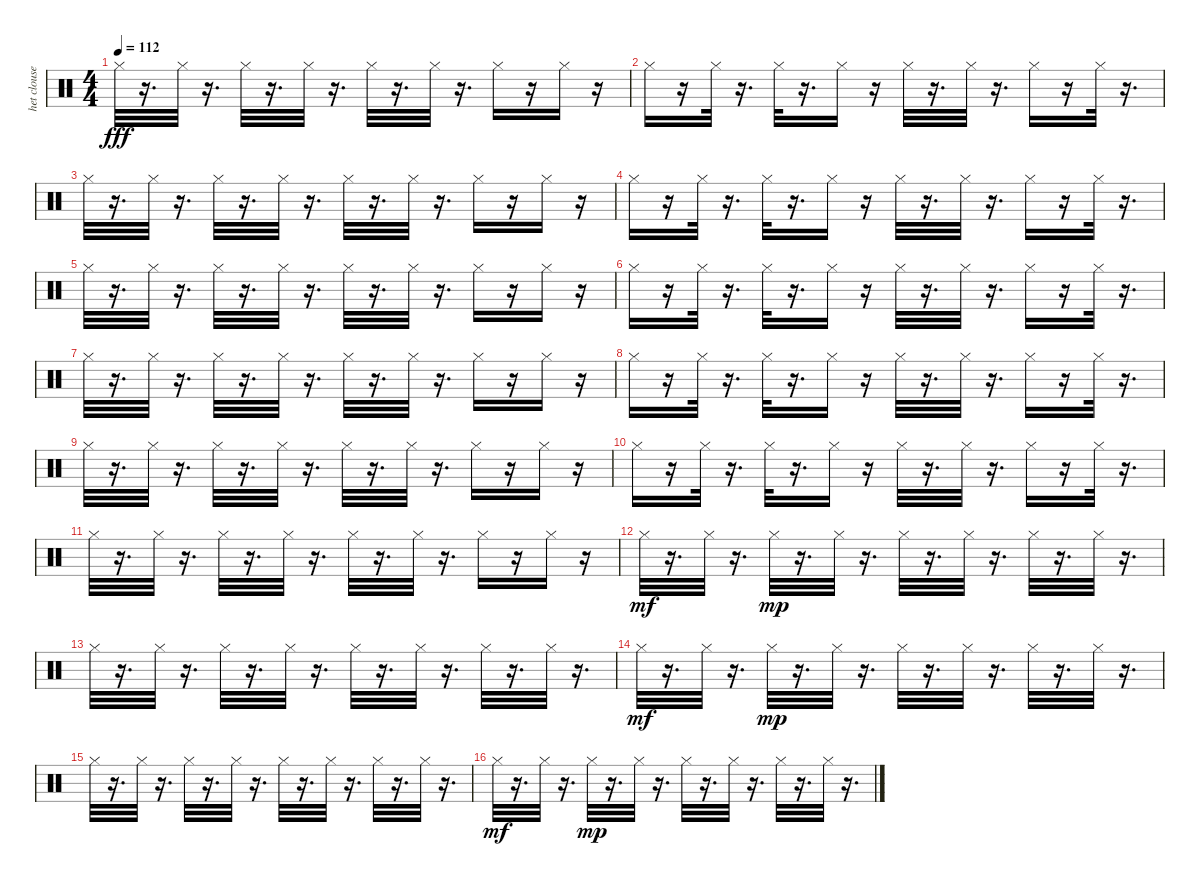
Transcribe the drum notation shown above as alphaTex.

\track ("het cloused" "het clouse") {instrument percussion}
\staff {score}
\articulation defaults
\ts (4 4)
\tempo 112
\clef neutral
\ks c "Hi-Hat (closed)".32{dy fff}
r.16{d} "Hi-Hat (closed)".32 r.16{d} "Hi-Hat (closed)".32 r.16{d} "Hi-Hat (closed)".32 r.16{d} "Hi-Hat (closed)".32 r.16{d} "Hi-Hat (closed)".32 r.16{d} "Hi-Hat (closed)".16 r.16 "Hi-Hat (closed)".16 r.16 |
"Hi-Hat (closed)".16 r.16 "Hi-Hat (closed)".32 r.16{d} "Hi-Hat (closed)".32 r.16{d} "Hi-Hat (closed)".16 r.16 "Hi-Hat (closed)".32 r.16{d} "Hi-Hat (closed)".32 r.16{d} "Hi-Hat (closed)".16 r.16 "Hi-Hat (closed)".32 r.16{d} |
"Hi-Hat (closed)".32 r.16{d} "Hi-Hat (closed)".32 r.16{d} "Hi-Hat (closed)".32 r.16{d} "Hi-Hat (closed)".32 r.16{d} "Hi-Hat (closed)".32 r.16{d} "Hi-Hat (closed)".32 r.16{d} "Hi-Hat (closed)".16 r.16 "Hi-Hat (closed)".16 r.16 |
"Hi-Hat (closed)".16 r.16 "Hi-Hat (closed)".32 r.16{d} "Hi-Hat (closed)".32 r.16{d} "Hi-Hat (closed)".16 r.16 "Hi-Hat (closed)".32 r.16{d} "Hi-Hat (closed)".32 r.16{d} "Hi-Hat (closed)".16 r.16 "Hi-Hat (closed)".32 r.16{d} |
"Hi-Hat (closed)".32 r.16{d} "Hi-Hat (closed)".32 r.16{d} "Hi-Hat (closed)".32 r.16{d} "Hi-Hat (closed)".32 r.16{d} "Hi-Hat (closed)".32 r.16{d} "Hi-Hat (closed)".32 r.16{d} "Hi-Hat (closed)".16 r.16 "Hi-Hat (closed)".16 r.16 |
"Hi-Hat (closed)".16 r.16 "Hi-Hat (closed)".32 r.16{d} "Hi-Hat (closed)".32 r.16{d} "Hi-Hat (closed)".16 r.16 "Hi-Hat (closed)".32 r.16{d} "Hi-Hat (closed)".32 r.16{d} "Hi-Hat (closed)".16 r.16 "Hi-Hat (closed)".32 r.16{d} |
"Hi-Hat (closed)".32 r.16{d} "Hi-Hat (closed)".32 r.16{d} "Hi-Hat (closed)".32 r.16{d} "Hi-Hat (closed)".32 r.16{d} "Hi-Hat (closed)".32 r.16{d} "Hi-Hat (closed)".32 r.16{d} "Hi-Hat (closed)".16 r.16 "Hi-Hat (closed)".16 r.16 |
"Hi-Hat (closed)".16 r.16 "Hi-Hat (closed)".32 r.16{d} "Hi-Hat (closed)".32 r.16{d} "Hi-Hat (closed)".16 r.16 "Hi-Hat (closed)".32 r.16{d} "Hi-Hat (closed)".32 r.16{d} "Hi-Hat (closed)".16 r.16 "Hi-Hat (closed)".32 r.16{d} |
"Hi-Hat (closed)".32 r.16{d} "Hi-Hat (closed)".32 r.16{d} "Hi-Hat (closed)".32 r.16{d} "Hi-Hat (closed)".32 r.16{d} "Hi-Hat (closed)".32 r.16{d} "Hi-Hat (closed)".32 r.16{d} "Hi-Hat (closed)".16 r.16 "Hi-Hat (closed)".16 r.16 |
"Hi-Hat (closed)".16 r.16 "Hi-Hat (closed)".32 r.16{d} "Hi-Hat (closed)".32 r.16{d} "Hi-Hat (closed)".16 r.16 "Hi-Hat (closed)".32 r.16{d} "Hi-Hat (closed)".32 r.16{d} "Hi-Hat (closed)".16 r.16 "Hi-Hat (closed)".32 r.16{d} |
"Hi-Hat (closed)".32 r.16{d} "Hi-Hat (closed)".32 r.16{d} "Hi-Hat (closed)".32 r.16{d} "Hi-Hat (closed)".32 r.16{d} "Hi-Hat (closed)".32 r.16{d} "Hi-Hat (closed)".32 r.16{d} "Hi-Hat (closed)".16 r.16 "Hi-Hat (closed)".16 r.16 |
"Hi-Hat (closed)".32{dy mf} r.16{d} "Hi-Hat (closed)".32 r.16{d} "Hi-Hat (closed)".32{dy mp} r.16{d} "Hi-Hat (closed)".32 r.16{d} "Hi-Hat (closed)".32 r.16{d} "Hi-Hat (closed)".32 r.16{d} "Hi-Hat (closed)".32 r.16{d} "Hi-Hat (closed)".32 r.16{d} |
"Hi-Hat (closed)".32 r.16{d} "Hi-Hat (closed)".32 r.16{d} "Hi-Hat (closed)".32 r.16{d} "Hi-Hat (closed)".32 r.16{d} "Hi-Hat (closed)".32 r.16{d} "Hi-Hat (closed)".32 r.16{d} "Hi-Hat (closed)".32 r.16{d} "Hi-Hat (closed)".32 r.16{d} |
"Hi-Hat (closed)".32{dy mf} r.16{d} "Hi-Hat (closed)".32 r.16{d} "Hi-Hat (closed)".32{dy mp} r.16{d} "Hi-Hat (closed)".32 r.16{d} "Hi-Hat (closed)".32 r.16{d} "Hi-Hat (closed)".32 r.16{d} "Hi-Hat (closed)".32 r.16{d} "Hi-Hat (closed)".32 r.16{d} |
"Hi-Hat (closed)".32 r.16{d} "Hi-Hat (closed)".32 r.16{d} "Hi-Hat (closed)".32 r.16{d} "Hi-Hat (closed)".32 r.16{d} "Hi-Hat (closed)".32 r.16{d} "Hi-Hat (closed)".32 r.16{d} "Hi-Hat (closed)".32 r.16{d} "Hi-Hat (closed)".32 r.16{d} |
"Hi-Hat (closed)".32{dy mf} r.16{d} "Hi-Hat (closed)".32 r.16{d} "Hi-Hat (closed)".32{dy mp} r.16{d} "Hi-Hat (closed)".32 r.16{d} "Hi-Hat (closed)".32 r.16{d} "Hi-Hat (closed)".32 r.16{d} "Hi-Hat (closed)".32 r.16{d} "Hi-Hat (closed)".32 r.16{d}
